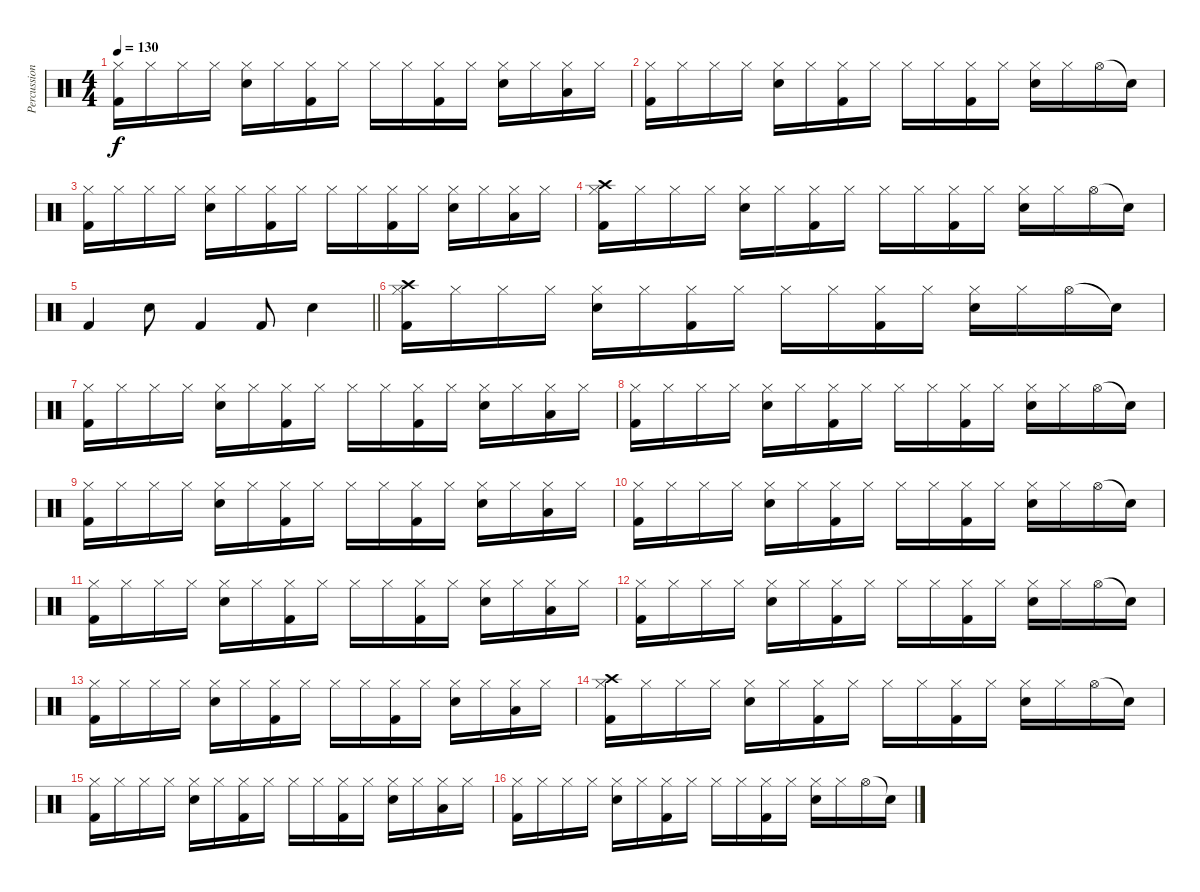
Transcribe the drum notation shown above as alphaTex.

\track ("Percussion" "Percussion") {instrument percussion}
\staff {score}
\articulation defaults
\ts (4 4)
\tempo 130
\clef neutral
\ks c
("Hi-Hat (closed)" "Kick (hit) 2").16{dy f} "Hi-Hat (closed)".16 "Hi-Hat (closed)".16 "Hi-Hat (closed)".16 ("Hi-Hat (closed)" "Snare (hit) 2").16 "Hi-Hat (closed)".16 ("Hi-Hat (closed)" "Kick (hit) 2").16 "Hi-Hat (closed)".16 "Hi-Hat (closed)".16 "Hi-Hat (closed)".16 ("Hi-Hat (closed)" "Kick (hit) 2").16 "Hi-Hat (closed)".16 ("Hi-Hat (closed)" "Snare (hit) 2").16 "Hi-Hat (closed)".16 ("Hi-Hat (closed)" "Low Tom (hit)").16 "Hi-Hat (closed)".16 |
("Hi-Hat (closed)" "Kick (hit) 2").16 "Hi-Hat (closed)".16 "Hi-Hat (closed)".16 "Hi-Hat (closed)".16 ("Hi-Hat (closed)" "Snare (hit) 2").16 "Hi-Hat (closed)".16 ("Hi-Hat (closed)" "Kick (hit) 2").16 "Hi-Hat (closed)".16 "Hi-Hat (closed)".16 "Hi-Hat (closed)".16 ("Hi-Hat (closed)" "Kick (hit) 2").16 "Hi-Hat (closed)".16 ("Hi-Hat (closed)" "Snare (hit) 2").16 "Hi-Hat (closed)".16 "Hi-Hat (open)".16 "Snare (hit)"{t}.16 |
("Hi-Hat (closed)" "Kick (hit) 2").16 "Hi-Hat (closed)".16 "Hi-Hat (closed)".16 "Hi-Hat (closed)".16 ("Hi-Hat (closed)" "Snare (hit) 2").16 "Hi-Hat (closed)".16 ("Hi-Hat (closed)" "Kick (hit) 2").16 "Hi-Hat (closed)".16 "Hi-Hat (closed)".16 "Hi-Hat (closed)".16 ("Hi-Hat (closed)" "Kick (hit) 2").16 "Hi-Hat (closed)".16 ("Hi-Hat (closed)" "Snare (hit) 2").16 "Hi-Hat (closed)".16 ("Hi-Hat (closed)" "Low Tom (hit)").16 "Hi-Hat (closed)".16 |
("Hi-Hat (closed)" "Crash high (hit)" "Kick (hit) 2").16 "Hi-Hat (closed)".16 "Hi-Hat (closed)".16 "Hi-Hat (closed)".16 ("Hi-Hat (closed)" "Snare (hit) 2").16 "Hi-Hat (closed)".16 ("Hi-Hat (closed)" "Kick (hit) 2").16 "Hi-Hat (closed)".16 "Hi-Hat (closed)".16 "Hi-Hat (closed)".16 ("Hi-Hat (closed)" "Kick (hit) 2").16 "Hi-Hat (closed)".16 ("Hi-Hat (closed)" "Snare (hit) 2").16 "Hi-Hat (closed)".16 "Hi-Hat (open)".16 "Snare (hit)"{t}.16 |
\barLineRight lightlight "Kick (hit) 2".4 "Hand Clap (hit)".8 "Kick (hit) 2".4 "Kick (hit) 2".8 "Hand Clap (hit)".4
|
("Hi-Hat (closed)" "Crash high (hit)" "Kick (hit) 2").16 "Hi-Hat (closed)".16 "Hi-Hat (closed)".16 "Hi-Hat (closed)".16 ("Hi-Hat (closed)" "Snare (hit) 2").16 "Hi-Hat (closed)".16 ("Hi-Hat (closed)" "Kick (hit) 2").16 "Hi-Hat (closed)".16 "Hi-Hat (closed)".16 "Hi-Hat (closed)".16 ("Hi-Hat (closed)" "Kick (hit) 2").16 "Hi-Hat (closed)".16 ("Hi-Hat (closed)" "Snare (hit) 2").16 "Hi-Hat (closed)".16 "Hi-Hat (open)".16 "Snare (hit)"{t}.16 |
("Hi-Hat (closed)" "Kick (hit) 2").16 "Hi-Hat (closed)".16 "Hi-Hat (closed)".16 "Hi-Hat (closed)".16 ("Hi-Hat (closed)" "Snare (hit) 2").16 "Hi-Hat (closed)".16 ("Hi-Hat (closed)" "Kick (hit) 2").16 "Hi-Hat (closed)".16 "Hi-Hat (closed)".16 "Hi-Hat (closed)".16 ("Hi-Hat (closed)" "Kick (hit) 2").16 "Hi-Hat (closed)".16 ("Hi-Hat (closed)" "Snare (hit) 2").16 "Hi-Hat (closed)".16 ("Hi-Hat (closed)" "Low Tom (hit)").16 "Hi-Hat (closed)".16 |
("Hi-Hat (closed)" "Kick (hit) 2").16 "Hi-Hat (closed)".16 "Hi-Hat (closed)".16 "Hi-Hat (closed)".16 ("Hi-Hat (closed)" "Snare (hit) 2").16 "Hi-Hat (closed)".16 ("Hi-Hat (closed)" "Kick (hit) 2").16 "Hi-Hat (closed)".16 "Hi-Hat (closed)".16 "Hi-Hat (closed)".16 ("Hi-Hat (closed)" "Kick (hit) 2").16 "Hi-Hat (closed)".16 ("Hi-Hat (closed)" "Snare (hit) 2").16 "Hi-Hat (closed)".16 "Hi-Hat (open)".16 "Snare (hit)"{t}.16 |
("Hi-Hat (closed)" "Kick (hit) 2").16 "Hi-Hat (closed)".16 "Hi-Hat (closed)".16 "Hi-Hat (closed)".16 ("Hi-Hat (closed)" "Snare (hit) 2").16 "Hi-Hat (closed)".16 ("Hi-Hat (closed)" "Kick (hit) 2").16 "Hi-Hat (closed)".16 "Hi-Hat (closed)".16 "Hi-Hat (closed)".16 ("Hi-Hat (closed)" "Kick (hit) 2").16 "Hi-Hat (closed)".16 ("Hi-Hat (closed)" "Snare (hit) 2").16 "Hi-Hat (closed)".16 ("Hi-Hat (closed)" "Low Tom (hit)").16 "Hi-Hat (closed)".16 |
("Hi-Hat (closed)" "Kick (hit) 2").16 "Hi-Hat (closed)".16 "Hi-Hat (closed)".16 "Hi-Hat (closed)".16 ("Hi-Hat (closed)" "Snare (hit) 2").16 "Hi-Hat (closed)".16 ("Hi-Hat (closed)" "Kick (hit) 2").16 "Hi-Hat (closed)".16 "Hi-Hat (closed)".16 "Hi-Hat (closed)".16 ("Hi-Hat (closed)" "Kick (hit) 2").16 "Hi-Hat (closed)".16 ("Hi-Hat (closed)" "Snare (hit) 2").16 "Hi-Hat (closed)".16 "Hi-Hat (open)".16 "Snare (hit)"{t}.16 |
("Hi-Hat (closed)" "Kick (hit) 2").16 "Hi-Hat (closed)".16 "Hi-Hat (closed)".16 "Hi-Hat (closed)".16 ("Hi-Hat (closed)" "Snare (hit) 2").16 "Hi-Hat (closed)".16 ("Hi-Hat (closed)" "Kick (hit) 2").16 "Hi-Hat (closed)".16 "Hi-Hat (closed)".16 "Hi-Hat (closed)".16 ("Hi-Hat (closed)" "Kick (hit) 2").16 "Hi-Hat (closed)".16 ("Hi-Hat (closed)" "Snare (hit) 2").16 "Hi-Hat (closed)".16 ("Hi-Hat (closed)" "Low Tom (hit)").16 "Hi-Hat (closed)".16 |
("Hi-Hat (closed)" "Kick (hit) 2").16 "Hi-Hat (closed)".16 "Hi-Hat (closed)".16 "Hi-Hat (closed)".16 ("Hi-Hat (closed)" "Snare (hit) 2").16 "Hi-Hat (closed)".16 ("Hi-Hat (closed)" "Kick (hit) 2").16 "Hi-Hat (closed)".16 "Hi-Hat (closed)".16 "Hi-Hat (closed)".16 ("Hi-Hat (closed)" "Kick (hit) 2").16 "Hi-Hat (closed)".16 ("Hi-Hat (closed)" "Snare (hit) 2").16 "Hi-Hat (closed)".16 "Hi-Hat (open)".16 "Snare (hit)"{t}.16 |
("Hi-Hat (closed)" "Kick (hit) 2").16 "Hi-Hat (closed)".16 "Hi-Hat (closed)".16 "Hi-Hat (closed)".16 ("Hi-Hat (closed)" "Snare (hit) 2").16 "Hi-Hat (closed)".16 ("Hi-Hat (closed)" "Kick (hit) 2").16 "Hi-Hat (closed)".16 "Hi-Hat (closed)".16 "Hi-Hat (closed)".16 ("Hi-Hat (closed)" "Kick (hit) 2").16 "Hi-Hat (closed)".16 ("Hi-Hat (closed)" "Snare (hit) 2").16 "Hi-Hat (closed)".16 ("Hi-Hat (closed)" "Low Tom (hit)").16 "Hi-Hat (closed)".16 |
("Hi-Hat (closed)" "Crash high (hit)" "Kick (hit) 2").16 "Hi-Hat (closed)".16 "Hi-Hat (closed)".16 "Hi-Hat (closed)".16 ("Hi-Hat (closed)" "Snare (hit) 2").16 "Hi-Hat (closed)".16 ("Hi-Hat (closed)" "Kick (hit) 2").16 "Hi-Hat (closed)".16 "Hi-Hat (closed)".16 "Hi-Hat (closed)".16 ("Hi-Hat (closed)" "Kick (hit) 2").16 "Hi-Hat (closed)".16 ("Hi-Hat (closed)" "Snare (hit) 2").16 "Hi-Hat (closed)".16 "Hi-Hat (open)".16 "Snare (hit)"{t}.16 |
("Hi-Hat (closed)" "Kick (hit) 2").16 "Hi-Hat (closed)".16 "Hi-Hat (closed)".16 "Hi-Hat (closed)".16 ("Hi-Hat (closed)" "Snare (hit) 2").16 "Hi-Hat (closed)".16 ("Hi-Hat (closed)" "Kick (hit) 2").16 "Hi-Hat (closed)".16 "Hi-Hat (closed)".16 "Hi-Hat (closed)".16 ("Hi-Hat (closed)" "Kick (hit) 2").16 "Hi-Hat (closed)".16 ("Hi-Hat (closed)" "Snare (hit) 2").16 "Hi-Hat (closed)".16 ("Hi-Hat (closed)" "Low Tom (hit)").16 "Hi-Hat (closed)".16 |
("Hi-Hat (closed)" "Kick (hit) 2").16 "Hi-Hat (closed)".16 "Hi-Hat (closed)".16 "Hi-Hat (closed)".16 ("Hi-Hat (closed)" "Snare (hit) 2").16 "Hi-Hat (closed)".16 ("Hi-Hat (closed)" "Kick (hit) 2").16 "Hi-Hat (closed)".16 "Hi-Hat (closed)".16 "Hi-Hat (closed)".16 ("Hi-Hat (closed)" "Kick (hit) 2").16 "Hi-Hat (closed)".16 ("Hi-Hat (closed)" "Snare (hit) 2").16 "Hi-Hat (closed)".16 "Hi-Hat (open)".16 "Snare (hit)"{t}.16
